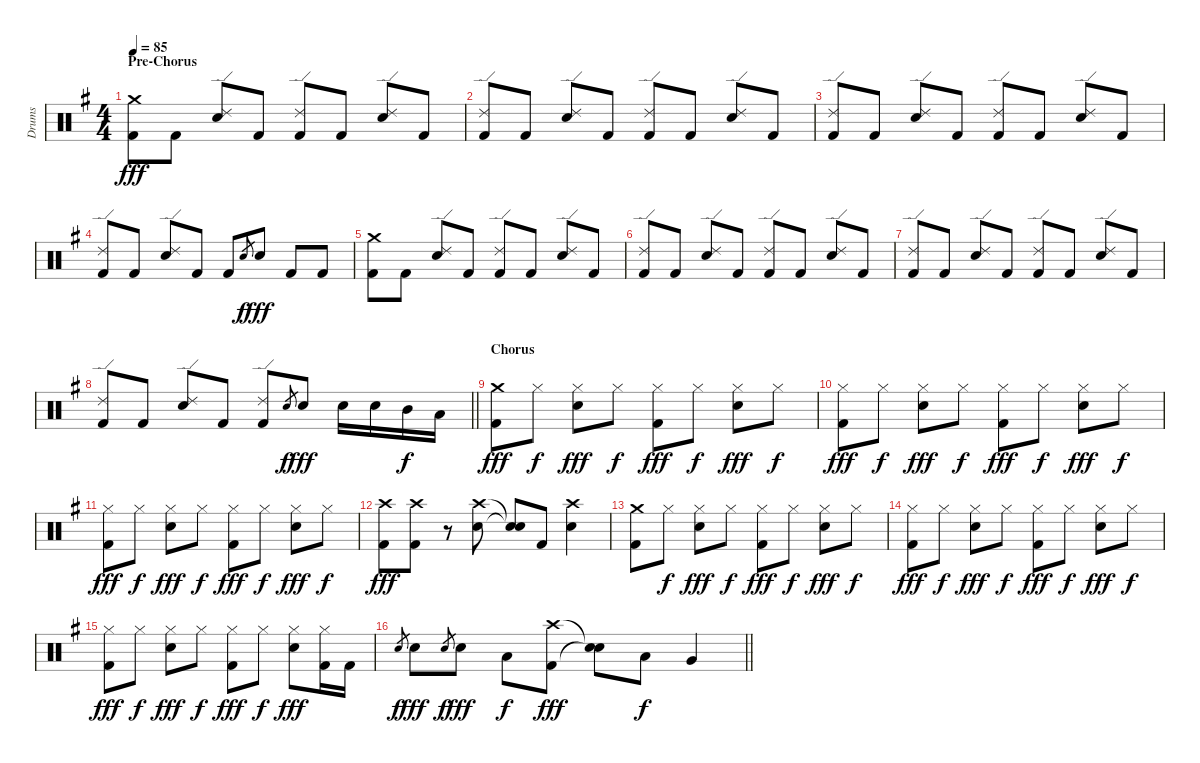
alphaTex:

\track ("Drums" "Drums") {instrument percussion}
\staff {score}
\articulation defaults
\ts (4 4)
\section ("" "Pre-Chorus")
\tempo 85
\clef neutral
\ks g
("Crash medium (hit)" "Kick (hit) 2").8{dy fff} "Kick (hit) 2".8 ("Ride (edge) 2" "Snare (hit) 2").8 "Kick (hit) 2".8 ("Ride (edge) 2" "Kick (hit) 2").8 "Kick (hit) 2".8 ("Ride (edge) 2" "Snare (hit) 2").8 "Kick (hit) 2".8 |
("Ride (edge) 2" "Kick (hit) 2").8 "Kick (hit) 2".8 ("Ride (edge) 2" "Snare (hit) 2").8 "Kick (hit) 2".8 ("Ride (edge) 2" "Kick (hit) 2").8 "Kick (hit) 2".8 ("Ride (edge) 2" "Snare (hit) 2").8 "Kick (hit) 2".8 |
("Ride (edge) 2" "Kick (hit) 2").8 "Kick (hit) 2".8 ("Ride (edge) 2" "Snare (hit) 2").8 "Kick (hit) 2".8 ("Ride (edge) 2" "Kick (hit) 2").8 "Kick (hit) 2".8 ("Ride (edge) 2" "Snare (hit) 2").8 "Kick (hit) 2".8 |
("Ride (edge) 2" "Kick (hit) 2").8 "Kick (hit) 2".8 ("Ride (edge) 2" "Snare (hit) 2").8 "Kick (hit) 2".8 "Kick (hit) 2".8 "Snare (hit) 2".8{gr dy f} "Snare (hit) 2".8{dy fff} "Kick (hit) 2".8 "Kick (hit) 2".8 |
("Crash medium (hit)" "Kick (hit) 2").8 "Kick (hit) 2".8 ("Ride (edge) 2" "Snare (hit) 2").8 "Kick (hit) 2".8 ("Ride (edge) 2" "Kick (hit) 2").8 "Kick (hit) 2".8 ("Ride (edge) 2" "Snare (hit) 2").8 "Kick (hit) 2".8 |
("Ride (edge) 2" "Kick (hit) 2").8 "Kick (hit) 2".8 ("Ride (edge) 2" "Snare (hit) 2").8 "Kick (hit) 2".8 ("Ride (edge) 2" "Kick (hit) 2").8 "Kick (hit) 2".8 ("Ride (edge) 2" "Snare (hit) 2").8 "Kick (hit) 2".8 |
("Ride (edge) 2" "Kick (hit) 2").8 "Kick (hit) 2".8 ("Ride (edge) 2" "Snare (hit) 2").8 "Kick (hit) 2".8 ("Ride (edge) 2" "Kick (hit) 2").8 "Kick (hit) 2".8 ("Ride (edge) 2" "Snare (hit) 2").8 "Kick (hit) 2".8 |
\barLineRight lightlight
("Ride (edge) 2" "Kick (hit) 2").8 "Kick (hit) 2".8 ("Ride (edge) 2" "Snare (hit) 2").8 "Kick (hit) 2".8 ("Ride (edge) 2" "Kick (hit) 2").8 "Snare (hit) 2".8{gr dy f} "Snare (hit) 2".8{dy fff} "Snare (hit) 2".16 "Snare (hit) 2".16 "Mid Tom (hit)".16{dy f} "Low Tom (hit)".16 |
\section ("" "Chorus")
("Crash medium (hit)" "Kick (hit) 2").8{dy fff} "Hi-Hat (closed)".8{dy f} ("Hi-Hat (closed)" "Snare (hit) 2").8{dy fff} "Hi-Hat (closed)".8{dy f} ("Hi-Hat (closed)" "Kick (hit) 2").8{dy fff} "Hi-Hat (closed)".8{dy f} ("Hi-Hat (closed)" "Snare (hit) 2").8{dy fff} "Hi-Hat (closed)".8{dy f} |
("Hi-Hat (closed)" "Kick (hit) 2").8{dy fff} "Hi-Hat (closed)".8{dy f} ("Hi-Hat (closed)" "Snare (hit) 2").8{dy fff} "Hi-Hat (closed)".8{dy f} ("Hi-Hat (closed)" "Kick (hit) 2").8{dy fff} "Hi-Hat (closed)".8{dy f} ("Hi-Hat (closed)" "Snare (hit) 2").8{dy fff} "Hi-Hat (closed)".8{dy f} |
("Hi-Hat (closed)" "Kick (hit) 2").8{dy fff} "Hi-Hat (closed)".8{dy f} ("Hi-Hat (closed)" "Snare (hit) 2").8{dy fff} "Hi-Hat (closed)".8{dy f} ("Hi-Hat (closed)" "Kick (hit) 2").8{dy fff} "Hi-Hat (closed)".8{dy f} ("Hi-Hat (closed)" "Snare (hit) 2").8{dy fff} "Hi-Hat (closed)".8{dy f} |
("Crash high (hit)" "Kick (hit) 2").8{dy fff} ("Crash high (hit)" "Kick (hit) 2").8 r.8 ("Crash high (hit)" "Snare (hit) 2").8 ("Snare (hit)"{t} "Snare (hit)"{t}).8 "Kick (hit) 2".8 ("Crash high (hit)" "Snare (hit) 2").4 |
("Crash medium (hit)" "Kick (hit) 2").8 "Hi-Hat (closed)".8{dy f} ("Hi-Hat (closed)" "Snare (hit) 2").8{dy fff} "Hi-Hat (closed)".8{dy f} ("Hi-Hat (closed)" "Kick (hit) 2").8{dy fff} "Hi-Hat (closed)".8{dy f} ("Hi-Hat (closed)" "Snare (hit) 2").8{dy fff} "Hi-Hat (closed)".8{dy f} |
("Hi-Hat (closed)" "Kick (hit) 2").8{dy fff} "Hi-Hat (closed)".8{dy f} ("Hi-Hat (closed)" "Snare (hit) 2").8{dy fff} "Hi-Hat (closed)".8{dy f} ("Hi-Hat (closed)" "Kick (hit) 2").8{dy fff} "Hi-Hat (closed)".8{dy f} ("Hi-Hat (closed)" "Snare (hit) 2").8{dy fff} "Hi-Hat (closed)".8{dy f} |
("Hi-Hat (closed)" "Kick (hit) 2").8{dy fff} "Hi-Hat (closed)".8{dy f} ("Hi-Hat (closed)" "Snare (hit) 2").8{dy fff} "Hi-Hat (closed)".8{dy f} ("Hi-Hat (closed)" "Kick (hit) 2").8{dy fff} "Hi-Hat (closed)".8{dy f} ("Hi-Hat (closed)" "Snare (hit) 2").8{dy fff} ("Hi-Hat (closed)" "Kick (hit) 2").16 "Kick (hit) 2".16 |
\barLineRight lightlight "Snare (hit) 2".8{gr dy f} "Snare (hit) 2".8{dy fff} "Snare (hit) 2".8{gr dy f} "Snare (hit) 2".8{dy fff} "Low Tom (hit)".8{dy f}
("Crash high (hit)" "Kick (hit) 2").8{dy fff} ("Snare (hit)"{t} "Snare (hit)"{t}).8 "Low Tom (hit)".8{dy f} "Very Low Tom (hit)".4
